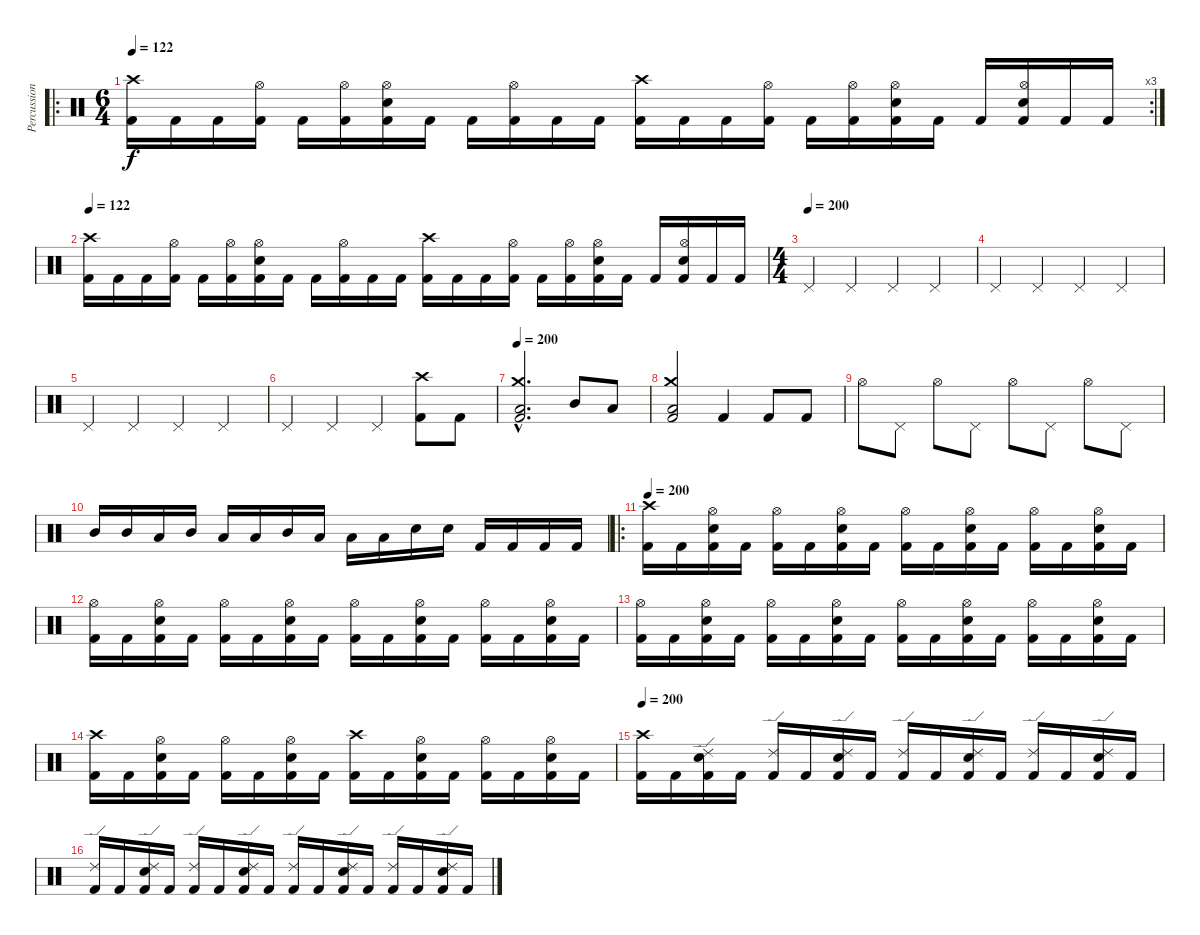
\track ("Percussion" "Percussion") {instrument percussion}
\staff {score}
\articulation defaults
\ro
\rc 3
\ts (6 4)
\tempo 122
\clef neutral
\ks c
("Crash high (hit)" "Kick (hit) 2").16{dy f} "Kick (hit) 2".16 "Kick (hit) 2".16 ("Hi-Hat (open)" "Kick (hit) 2").16 "Kick (hit) 2".16 ("Hi-Hat (open)" "Kick (hit) 2").16 ("Hi-Hat (open)" "Electric Snare (hit)" "Kick (hit) 2").16 "Kick (hit) 2".16 "Kick (hit) 2".16 ("Hi-Hat (open)" "Kick (hit) 2").16 "Kick (hit) 2".16 "Kick (hit) 2".16 ("Crash high (hit)" "Kick (hit) 2").16 "Kick (hit) 2".16 "Kick (hit) 2".16 ("Hi-Hat (open)" "Kick (hit) 2").16 "Kick (hit) 2".16 ("Hi-Hat (open)" "Kick (hit) 2").16 ("Hi-Hat (open)" "Electric Snare (hit)" "Kick (hit) 2").16 "Kick (hit) 2".16 "Kick (hit) 2".16 ("Hi-Hat (open)" "Electric Snare (hit)" "Kick (hit) 2").16 "Kick (hit) 2".16 "Kick (hit) 2".16 |
\tempo 122
("Crash high (hit)" "Kick (hit) 2").16 "Kick (hit) 2".16 "Kick (hit) 2".16 ("Hi-Hat (open)" "Kick (hit) 2").16 "Kick (hit) 2".16 ("Hi-Hat (open)" "Kick (hit) 2").16 ("Hi-Hat (open)" "Electric Snare (hit)" "Kick (hit) 2").16 "Kick (hit) 2".16 "Kick (hit) 2".16 ("Hi-Hat (open)" "Kick (hit) 2").16 "Kick (hit) 2".16 "Kick (hit) 2".16 ("Crash high (hit)" "Kick (hit) 2").16 "Kick (hit) 2".16 "Kick (hit) 2".16 ("Hi-Hat (open)" "Kick (hit) 2").16 "Kick (hit) 2".16 ("Hi-Hat (open)" "Kick (hit) 2").16 ("Hi-Hat (open)" "Electric Snare (hit)" "Kick (hit) 2").16 "Kick (hit) 2".16 "Kick (hit) 2".16 ("Hi-Hat (open)" "Electric Snare (hit)" "Kick (hit) 2").16 "Kick (hit) 2".16 "Kick (hit) 2".16 |
\ts (4 4)
\tempo (200)
"Pedal Hi-Hat (hit)".4 "Pedal Hi-Hat (hit)".4 "Pedal Hi-Hat (hit)".4 "Pedal Hi-Hat (hit)".4 |
"Pedal Hi-Hat (hit)".4 "Pedal Hi-Hat (hit)".4 "Pedal Hi-Hat (hit)".4 "Pedal Hi-Hat (hit)".4 |
"Pedal Hi-Hat (hit)".4 "Pedal Hi-Hat (hit)".4 "Pedal Hi-Hat (hit)".4 "Pedal Hi-Hat (hit)".4 |
"Pedal Hi-Hat (hit)".4 "Pedal Hi-Hat (hit)".4 "Pedal Hi-Hat (hit)".4 ("Crash high (hit)" "Kick (hit) 2").8 "Kick (hit) 2".8 |
\tempo 200
("Crash medium (hit)"{hac} "Low Floor Tom (hit)"{hac} "Kick (hit) 2"{hac}).2{d} "Mid Tom (hit)".8 "Low Tom (hit)".8 |
("Crash medium (hit)" "Low Floor Tom (hit)" "Kick (hit) 2").2 "Kick (hit) 2".4 "Kick (hit) 2".8 "Kick (hit) 2".8 |
"Hi-Hat (open)".8 "Pedal Hi-Hat (hit)".8 "Hi-Hat (open)".8 "Pedal Hi-Hat (hit)".8 "Hi-Hat (open)".8 "Pedal Hi-Hat (hit)".8 "Hi-Hat (open)".8 "Pedal Hi-Hat (hit)".8 |
"Mid Tom (hit)".16 "Mid Tom (hit)".16 "Low Tom (hit)".16 "Mid Tom (hit)".16 "Low Tom (hit)".16 "Low Tom (hit)".16 "Mid Tom (hit)".16 "Low Tom (hit)".16 "Low Floor Tom (hit)".16 "Low Floor Tom (hit)".16 "Electric Snare (hit)".16 "Electric Snare (hit)".16 "Kick (hit) 2".16 "Kick (hit) 2".16 "Kick (hit) 2".16 "Kick (hit) 2".16 |
\ro
\tempo 200
("Crash high (hit)" "Kick (hit) 2").16 "Kick (hit) 2".16 ("Hi-Hat (open)" "Electric Snare (hit)" "Kick (hit) 2").16 "Kick (hit) 2".16 ("Hi-Hat (open)" "Kick (hit) 2").16 "Kick (hit) 2".16 ("Hi-Hat (open)" "Electric Snare (hit)" "Kick (hit) 2").16 "Kick (hit) 2".16 ("Hi-Hat (open)" "Kick (hit) 2").16 "Kick (hit) 2".16 ("Hi-Hat (open)" "Electric Snare (hit)" "Kick (hit) 2").16 "Kick (hit) 2".16 ("Hi-Hat (open)" "Kick (hit) 2").16 "Kick (hit) 2".16 ("Hi-Hat (open)" "Electric Snare (hit)" "Kick (hit) 2").16 "Kick (hit) 2".16 |
("Hi-Hat (open)" "Kick (hit) 2").16 "Kick (hit) 2".16 ("Hi-Hat (open)" "Electric Snare (hit)" "Kick (hit) 2").16 "Kick (hit) 2".16 ("Hi-Hat (open)" "Kick (hit) 2").16 "Kick (hit) 2".16 ("Hi-Hat (open)" "Electric Snare (hit)" "Kick (hit) 2").16 "Kick (hit) 2".16 ("Hi-Hat (open)" "Kick (hit) 2").16 "Kick (hit) 2".16 ("Hi-Hat (open)" "Electric Snare (hit)" "Kick (hit) 2").16 "Kick (hit) 2".16 ("Hi-Hat (open)" "Kick (hit) 2").16 "Kick (hit) 2".16 ("Hi-Hat (open)" "Electric Snare (hit)" "Kick (hit) 2").16 "Kick (hit) 2".16 |
("Hi-Hat (open)" "Kick (hit) 2").16 "Kick (hit) 2".16 ("Hi-Hat (open)" "Electric Snare (hit)" "Kick (hit) 2").16 "Kick (hit) 2".16 ("Hi-Hat (open)" "Kick (hit) 2").16 "Kick (hit) 2".16 ("Hi-Hat (open)" "Electric Snare (hit)" "Kick (hit) 2").16 "Kick (hit) 2".16 ("Hi-Hat (open)" "Kick (hit) 2").16 "Kick (hit) 2".16 ("Hi-Hat (open)" "Electric Snare (hit)" "Kick (hit) 2").16 "Kick (hit) 2".16 ("Hi-Hat (open)" "Kick (hit) 2").16 "Kick (hit) 2".16 ("Hi-Hat (open)" "Electric Snare (hit)" "Kick (hit) 2").16 "Kick (hit) 2".16 |
("Crash high (hit)" "Kick (hit) 2").16 "Kick (hit) 2".16 ("Hi-Hat (open)" "Electric Snare (hit)" "Kick (hit) 2").16 "Kick (hit) 2".16 ("Hi-Hat (open)" "Kick (hit) 2").16 "Kick (hit) 2".16 ("Hi-Hat (open)" "Electric Snare (hit)" "Kick (hit) 2").16 "Kick (hit) 2".16 ("Crash high (hit)" "Kick (hit) 2").16 "Kick (hit) 2".16 ("Hi-Hat (open)" "Electric Snare (hit)" "Kick (hit) 2").16 "Kick (hit) 2".16 ("Hi-Hat (open)" "Kick (hit) 2").16 "Kick (hit) 2".16 ("Hi-Hat (open)" "Electric Snare (hit)" "Kick (hit) 2").16 "Kick (hit) 2".16 |
\tempo 200
("Crash high (hit)" "Kick (hit) 2").16 "Kick (hit) 2".16 ("Ride (edge) 2" "Electric Snare (hit)" "Kick (hit) 2").16 "Kick (hit) 2".16 ("Ride (edge) 2" "Kick (hit) 2").16 "Kick (hit) 2".16 ("Ride (edge) 2" "Electric Snare (hit)" "Kick (hit) 2").16 "Kick (hit) 2".16 ("Ride (edge) 2" "Kick (hit) 2").16 "Kick (hit) 2".16 ("Ride (edge) 2" "Electric Snare (hit)" "Kick (hit) 2").16 "Kick (hit) 2".16 ("Ride (edge) 2" "Kick (hit) 2").16 "Kick (hit) 2".16 ("Ride (edge) 2" "Electric Snare (hit)" "Kick (hit) 2").16 "Kick (hit) 2".16 |
("Ride (edge) 2" "Kick (hit) 2").16 "Kick (hit) 2".16 ("Ride (edge) 2" "Electric Snare (hit)" "Kick (hit) 2").16 "Kick (hit) 2".16 ("Ride (edge) 2" "Kick (hit) 2").16 "Kick (hit) 2".16 ("Ride (edge) 2" "Electric Snare (hit)" "Kick (hit) 2").16 "Kick (hit) 2".16 ("Ride (edge) 2" "Kick (hit) 2").16 "Kick (hit) 2".16 ("Ride (edge) 2" "Electric Snare (hit)" "Kick (hit) 2").16 "Kick (hit) 2".16 ("Ride (edge) 2" "Kick (hit) 2").16 "Kick (hit) 2".16 ("Ride (edge) 2" "Electric Snare (hit)" "Kick (hit) 2").16 "Kick (hit) 2".16
